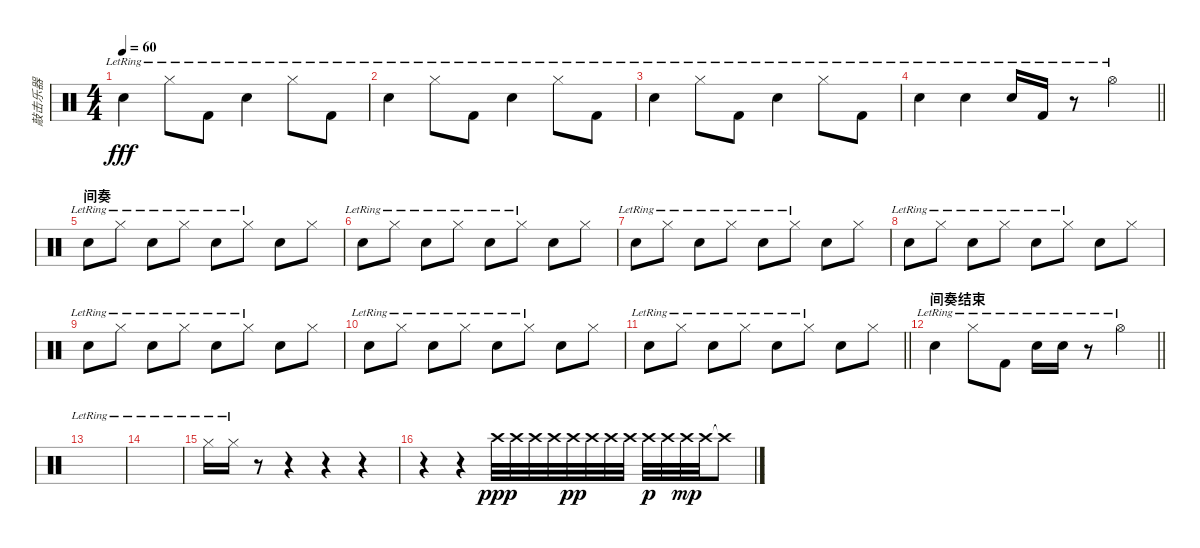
\track ("敲击乐器" "敲击乐器") {instrument percussion}
\staff {score}
\articulation defaults
\ts (4 4)
\tempo 60
\clef neutral
\ks c "Snare (hit) 2"{lr}.4{dy fff} "Hi-Hat (closed)"{lr}.8 "Kick (hit) 2"{lr}.8 "Snare (hit) 2"{lr}.4 "Hi-Hat (closed)"{lr}.8 "Kick (hit) 2"{lr}.8
|
"Snare (hit) 2"{lr}.4 "Hi-Hat (closed)"{lr}.8 "Kick (hit) 2"{lr}.8 "Snare (hit) 2"{lr}.4 "Hi-Hat (closed)"{lr}.8 "Kick (hit) 2"{lr}.8 |
"Snare (hit) 2"{lr}.4 "Hi-Hat (closed)"{lr}.8 "Kick (hit) 2"{lr}.8 "Snare (hit) 2"{lr}.4 "Hi-Hat (closed)"{lr}.8 "Kick (hit) 2"{lr}.8 |
\barLineRight lightlight "Electric Snare (hit)"{lr}.4 "Snare (hit) 2"{lr}.4 "Snare (hit) 2"{lr}.16 "Kick (hit) 2"{lr}.16
r.8 "Hi-Hat (open)"{lr}.4 |
\section ("" "间奏")
"Snare (hit) 2"{lr}.8 "Hi-Hat (closed)"{lr}.8 "Electric Snare (hit)"{lr}.8 "Hi-Hat (closed)"{lr}.8 "Snare (hit) 2"{lr}.8 "Hi-Hat (closed)"{lr}.8 "Electric Snare (hit)".8 "Hi-Hat (closed)".8 |
"Snare (hit) 2"{lr}.8 "Hi-Hat (closed)"{lr}.8 "Electric Snare (hit)"{lr}.8 "Hi-Hat (closed)"{lr}.8 "Snare (hit) 2"{lr}.8 "Hi-Hat (closed)"{lr}.8 "Electric Snare (hit)".8 "Hi-Hat (closed)".8 |
"Snare (hit) 2"{lr}.8 "Hi-Hat (closed)"{lr}.8 "Electric Snare (hit)"{lr}.8 "Hi-Hat (closed)"{lr}.8 "Snare (hit) 2"{lr}.8 "Hi-Hat (closed)"{lr}.8 "Electric Snare (hit)".8 "Hi-Hat (closed)".8 |
"Snare (hit) 2"{lr}.8 "Hi-Hat (closed)"{lr}.8 "Electric Snare (hit)"{lr}.8 "Hi-Hat (closed)"{lr}.8 "Snare (hit) 2"{lr}.8 "Hi-Hat (closed)"{lr}.8 "Electric Snare (hit)".8 "Hi-Hat (closed)".8 |
"Snare (hit) 2"{lr}.8 "Hi-Hat (closed)"{lr}.8 "Electric Snare (hit)"{lr}.8 "Hi-Hat (closed)"{lr}.8 "Snare (hit) 2"{lr}.8 "Hi-Hat (closed)"{lr}.8 "Electric Snare (hit)".8 "Hi-Hat (closed)".8 |
"Snare (hit) 2"{lr}.8 "Hi-Hat (closed)"{lr}.8 "Electric Snare (hit)"{lr}.8 "Hi-Hat (closed)"{lr}.8 "Snare (hit) 2"{lr}.8 "Hi-Hat (closed)"{lr}.8 "Electric Snare (hit)".8 "Hi-Hat (closed)".8 |
\barLineRight lightlight "Snare (hit) 2"{lr}.8 "Hi-Hat (closed)"{lr}.8 "Electric Snare (hit)"{lr}.8 "Hi-Hat (closed)"{lr}.8 "Snare (hit) 2"{lr}.8 "Hi-Hat (closed)"{lr}.8 "Electric Snare (hit)".8 "Hi-Hat (closed)".8
|
\section ("" "间奏结束")
\barLineRight lightlight "Snare (hit) 2"{lr}.4 "Hi-Hat (closed)"{lr}.8 "Kick (hit) 2"{lr}.8 "Snare (hit) 2"{lr}.16 "Snare (hit) 2"{lr}.16
r.8 "Hi-Hat (open)"{lr}.4 |
|
|
"Hi-Hat (closed)"{lr}.16 "Hi-Hat (closed)"{lr}.16 r.8 r.4 r.4 r.4 |
r.4 r.4 "Crash high (hit)".32{dy ppp} "Crash high (hit)".32 "Crash high (hit)".32 "Crash high (hit)".32 "Crash high (hit)".32{dy pp} "Crash high (hit)".32 "Crash high (hit)".32 "Crash high (hit)".32 "Crash high (hit)".32{dy p} "Crash high (hit)".32 "Crash high (hit)".32{dy mp} "Crash high (hit)".32 "Crash high (hit)"{t}.8
